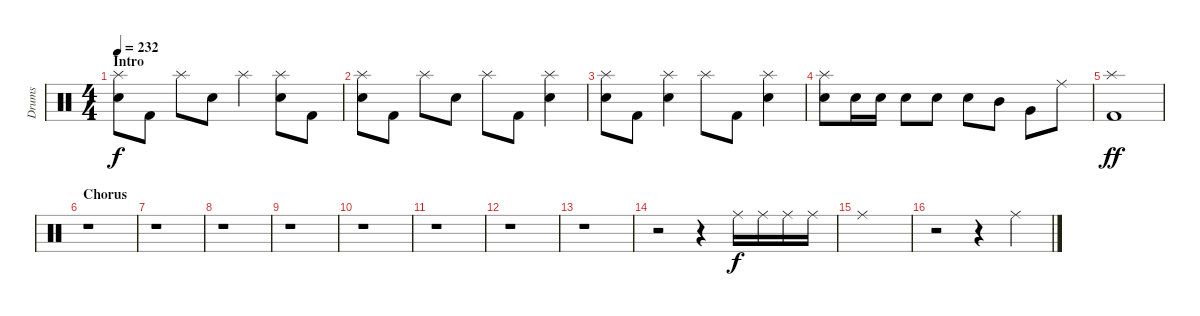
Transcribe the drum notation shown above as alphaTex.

\track ("Drums" "Drums") {instrument percussion}
\staff {score}
\articulation defaults
\ts (4 4)
\section ("" "Intro")
\tempo 232
\clef neutral
\ks c
("Splash (hit)" "Electric Snare (hit)").8{dy f} "Kick (hit) 2".8 "Splash (hit)".8 "Electric Snare (hit)".8 "Splash (hit)".4 ("Splash (hit)" "Electric Snare (hit)").8 "Kick (hit) 2".8 |
("Splash (hit)" "Electric Snare (hit)").8 "Kick (hit) 2".8 "Splash (hit)".8 "Electric Snare (hit)".8 "Splash (hit)".8 "Kick (hit) 2".8 ("Splash (hit)" "Electric Snare (hit)").4 |
("Splash (hit)" "Electric Snare (hit)").8 "Kick (hit) 2".8 ("Splash (hit)" "Electric Snare (hit)").4 "Splash (hit)".8 "Kick (hit) 2".8 ("Splash (hit)" "Electric Snare (hit)").4 |
("Splash (hit)" "Electric Snare (hit)").8 "Electric Snare (hit)".16 "Electric Snare (hit)".16 "Electric Snare (hit)".8 "Electric Snare (hit)".8 "Electric Snare (hit)".8 "Mid Tom (hit)".8 "Very Low Tom (hit)".8 "Ride (middle)".8 |
("Splash (hit)" "Kick (hit) 2").1{dy ff} |
\section ("" "Chorus")
r.1 |
r.1 |
r.1 |
r.1 |
r.1 |
r.1 |
r.1 |
r.1 |
r.2 r.4 "Ride (middle)".16{dy f} "Ride (middle)".16 "Ride (middle)".16 "Ride (middle)".16 |
"Ride (middle)".1 |
r.2 r.4 "Ride (middle)".4
